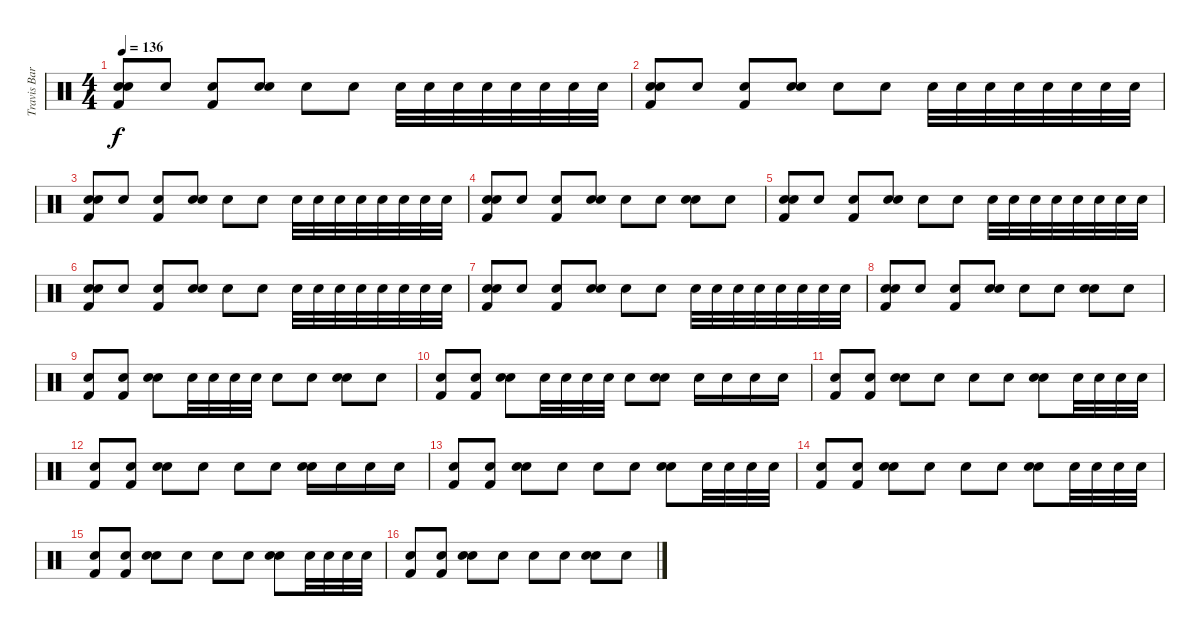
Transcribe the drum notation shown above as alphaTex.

\track ("Travis Barker" "Travis Bar") {instrument percussion}
\staff {score}
\articulation defaults
\ts (4 4)
\tempo 136
\clef neutral
\ks c
("Snare (hit) 2" "Snare (hit) 2" "Kick (hit) 2").8{dy f} "Snare (hit) 2".8 ("Snare (hit) 2" "Kick (hit) 2").8 ("Snare (hit) 2" "Snare (hit) 2").8 "Snare (hit) 2".8 "Snare (hit) 2".8 "Snare (hit) 2".32 "Snare (hit) 2".32 "Snare (hit) 2".32 "Snare (hit) 2".32 "Snare (hit) 2".32 "Snare (hit) 2".32 "Snare (hit) 2".32 "Snare (hit) 2".32 |
("Snare (hit) 2" "Snare (hit) 2" "Kick (hit) 2").8 "Snare (hit) 2".8 ("Snare (hit) 2" "Kick (hit) 2").8 ("Snare (hit) 2" "Snare (hit) 2").8 "Snare (hit) 2".8 "Snare (hit) 2".8 "Snare (hit) 2".32 "Snare (hit) 2".32 "Snare (hit) 2".32 "Snare (hit) 2".32 "Snare (hit) 2".32 "Snare (hit) 2".32 "Snare (hit) 2".32 "Snare (hit) 2".32 |
("Snare (hit) 2" "Snare (hit) 2" "Kick (hit) 2").8 "Snare (hit) 2".8 ("Snare (hit) 2" "Kick (hit) 2").8 ("Snare (hit) 2" "Snare (hit) 2").8 "Snare (hit) 2".8 "Snare (hit) 2".8 "Snare (hit) 2".32 "Snare (hit) 2".32 "Snare (hit) 2".32 "Snare (hit) 2".32 "Snare (hit) 2".32 "Snare (hit) 2".32 "Snare (hit) 2".32 "Snare (hit) 2".32 |
("Snare (hit) 2" "Snare (hit) 2" "Kick (hit) 2").8 "Snare (hit) 2".8 ("Snare (hit) 2" "Kick (hit) 2").8 ("Snare (hit) 2" "Snare (hit) 2").8 "Snare (hit) 2".8 "Snare (hit) 2".8 ("Snare (hit) 2" "Snare (hit) 2").8 "Snare (hit) 2".8 |
("Snare (hit) 2" "Snare (hit) 2" "Kick (hit) 2").8 "Snare (hit) 2".8 ("Snare (hit) 2" "Kick (hit) 2").8 ("Snare (hit) 2" "Snare (hit) 2").8 "Snare (hit) 2".8 "Snare (hit) 2".8 "Snare (hit) 2".32 "Snare (hit) 2".32 "Snare (hit) 2".32 "Snare (hit) 2".32 "Snare (hit) 2".32 "Snare (hit) 2".32 "Snare (hit) 2".32 "Snare (hit) 2".32 |
("Snare (hit) 2" "Snare (hit) 2" "Kick (hit) 2").8 "Snare (hit) 2".8 ("Snare (hit) 2" "Kick (hit) 2").8 ("Snare (hit) 2" "Snare (hit) 2").8 "Snare (hit) 2".8 "Snare (hit) 2".8 "Snare (hit) 2".32 "Snare (hit) 2".32 "Snare (hit) 2".32 "Snare (hit) 2".32 "Snare (hit) 2".32 "Snare (hit) 2".32 "Snare (hit) 2".32 "Snare (hit) 2".32 |
("Snare (hit) 2" "Snare (hit) 2" "Kick (hit) 2").8 "Snare (hit) 2".8 ("Snare (hit) 2" "Kick (hit) 2").8 ("Snare (hit) 2" "Snare (hit) 2").8 "Snare (hit) 2".8 "Snare (hit) 2".8 "Snare (hit) 2".32 "Snare (hit) 2".32 "Snare (hit) 2".32 "Snare (hit) 2".32 "Snare (hit) 2".32 "Snare (hit) 2".32 "Snare (hit) 2".32 "Snare (hit) 2".32 |
("Snare (hit) 2" "Snare (hit) 2" "Kick (hit) 2").8 "Snare (hit) 2".8 ("Snare (hit) 2" "Kick (hit) 2").8 ("Snare (hit) 2" "Snare (hit) 2").8 "Snare (hit) 2".8 "Snare (hit) 2".8 ("Snare (hit) 2" "Snare (hit) 2").8 "Snare (hit) 2".8 |
("Snare (hit) 2" "Kick (hit) 2").8 ("Snare (hit) 2" "Kick (hit) 2").8 ("Snare (hit) 2" "Snare (hit) 2").8 "Snare (hit) 2".32 "Snare (hit) 2".32 "Snare (hit) 2".32 "Snare (hit) 2".32 "Snare (hit) 2".8 "Snare (hit) 2".8 ("Snare (hit) 2" "Snare (hit) 2").8 "Snare (hit) 2".8 |
("Snare (hit) 2" "Kick (hit) 2").8 ("Snare (hit) 2" "Kick (hit) 2").8 ("Snare (hit) 2" "Snare (hit) 2").8 "Snare (hit) 2".32 "Snare (hit) 2".32 "Snare (hit) 2".32 "Snare (hit) 2".32 "Snare (hit) 2".8 ("Snare (hit) 2" "Snare (hit) 2").8 "Snare (hit) 2".16 "Snare (hit) 2".16 "Snare (hit) 2".16 "Snare (hit) 2".16 |
("Snare (hit) 2" "Kick (hit) 2").8 ("Snare (hit) 2" "Kick (hit) 2").8 ("Snare (hit) 2" "Snare (hit) 2").8 "Snare (hit) 2".8 "Snare (hit) 2".8 "Snare (hit) 2".8 ("Snare (hit) 2" "Snare (hit) 2").8 "Snare (hit) 2".32 "Snare (hit) 2".32 "Snare (hit) 2".32 "Snare (hit) 2".32 |
("Snare (hit) 2" "Kick (hit) 2").8 ("Snare (hit) 2" "Kick (hit) 2").8 ("Snare (hit) 2" "Snare (hit) 2").8 "Snare (hit) 2".8 "Snare (hit) 2".8 "Snare (hit) 2".8 ("Snare (hit) 2" "Snare (hit) 2").16 "Snare (hit) 2".16 "Snare (hit) 2".16 "Snare (hit) 2".16 |
("Snare (hit) 2" "Kick (hit) 2").8 ("Snare (hit) 2" "Kick (hit) 2").8 ("Snare (hit) 2" "Snare (hit) 2").8 "Snare (hit) 2".8 "Snare (hit) 2".8 "Snare (hit) 2".8 ("Snare (hit) 2" "Snare (hit) 2").8 "Snare (hit) 2".32 "Snare (hit) 2".32 "Snare (hit) 2".32 "Snare (hit) 2".32 |
("Snare (hit) 2" "Kick (hit) 2").8 ("Snare (hit) 2" "Kick (hit) 2").8 ("Snare (hit) 2" "Snare (hit) 2").8 "Snare (hit) 2".8 "Snare (hit) 2".8 "Snare (hit) 2".8 ("Snare (hit) 2" "Snare (hit) 2").8 "Snare (hit) 2".32 "Snare (hit) 2".32 "Snare (hit) 2".32 "Snare (hit) 2".32 |
("Snare (hit) 2" "Kick (hit) 2").8 ("Snare (hit) 2" "Kick (hit) 2").8 ("Snare (hit) 2" "Snare (hit) 2").8 "Snare (hit) 2".8 "Snare (hit) 2".8 "Snare (hit) 2".8 ("Snare (hit) 2" "Snare (hit) 2").8 "Snare (hit) 2".32 "Snare (hit) 2".32 "Snare (hit) 2".32 "Snare (hit) 2".32 |
("Snare (hit) 2" "Kick (hit) 2").8 ("Snare (hit) 2" "Kick (hit) 2").8 ("Snare (hit) 2" "Snare (hit) 2").8 "Snare (hit) 2".8 "Snare (hit) 2".8 "Snare (hit) 2".8 ("Snare (hit) 2" "Snare (hit) 2").8 "Snare (hit) 2".8
